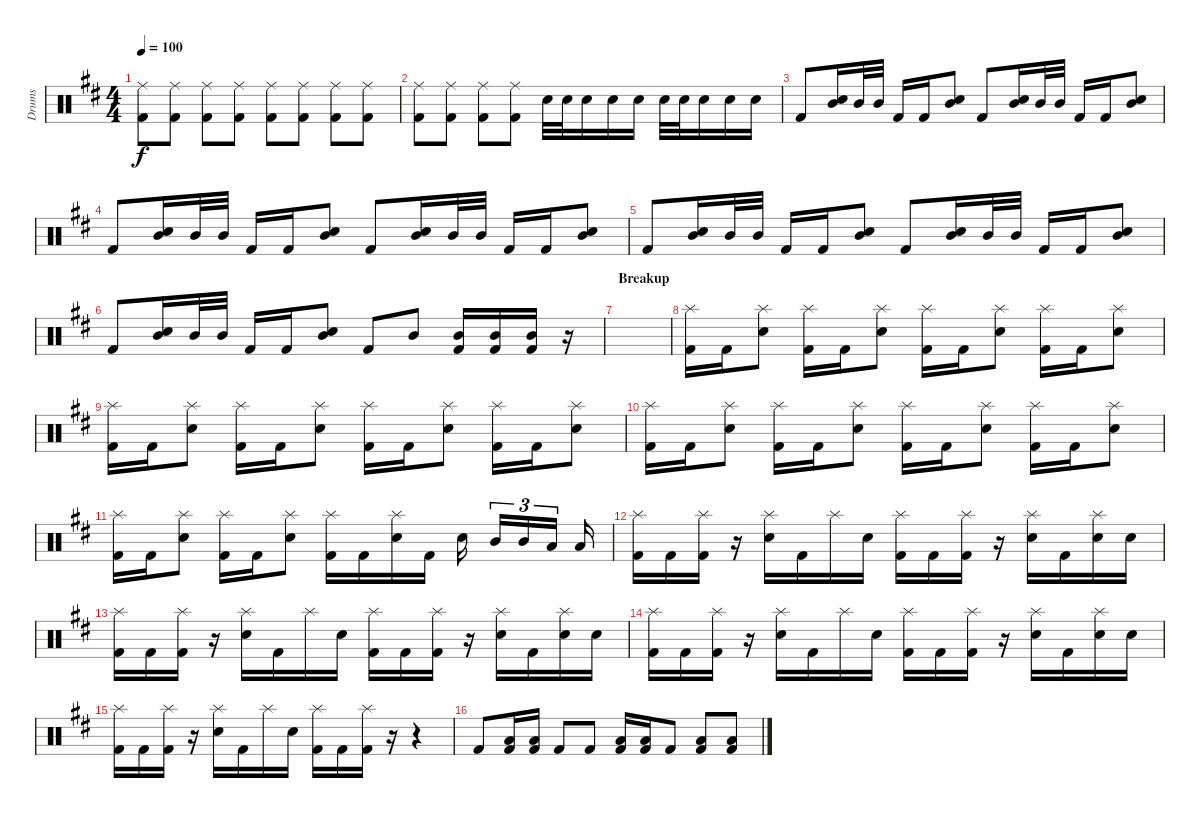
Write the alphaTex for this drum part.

\track ("Drums" "Drums") {instrument percussion}
\staff {score}
\articulation defaults
\ts (4 4)
\tempo 100
\clef neutral
\ks d
("Kick (hit) 2" "Ride (middle)").8{dy f} ("Kick (hit) 2" "Ride (middle)").8 ("Kick (hit) 2" "Ride (middle)").8 ("Kick (hit) 2" "Ride (middle)").8 ("Kick (hit) 2" "Ride (middle)").8 ("Kick (hit) 2" "Ride (middle)").8 ("Kick (hit) 2" "Ride (middle)").8 ("Kick (hit) 2" "Ride (middle)").8 |
("Kick (hit) 2" "Ride (middle)").8 ("Kick (hit) 2" "Ride (middle)").8 ("Kick (hit) 2" "Ride (middle)").8 ("Kick (hit) 2" "Ride (middle)").8 "Electric Snare (hit)".32 "Electric Snare (hit)".32 "Electric Snare (hit)".16 "Electric Snare (hit)".16 "Electric Snare (hit)".16 "Electric Snare (hit)".32 "Electric Snare (hit)".32 "Electric Snare (hit)".16 "Electric Snare (hit)".16 "Electric Snare (hit)".16 |
"Kick (hit) 2".8 ("Mid Tom (hit)" "Electric Snare (hit)").16 "Mid Tom (hit)".32 "Mid Tom (hit)".32 "Kick (hit) 2".16 "Kick (hit) 2".16 ("Mid Tom (hit)" "Electric Snare (hit)").8 "Kick (hit) 2".8 ("Mid Tom (hit)" "Electric Snare (hit)").16 "Mid Tom (hit)".32 "Mid Tom (hit)".32 "Kick (hit) 2".16 "Kick (hit) 2".16 ("Mid Tom (hit)" "Electric Snare (hit)").8 |
"Kick (hit) 2".8 ("Mid Tom (hit)" "Electric Snare (hit)").16 "Mid Tom (hit)".32 "Mid Tom (hit)".32 "Kick (hit) 2".16 "Kick (hit) 2".16 ("Mid Tom (hit)" "Electric Snare (hit)").8 "Kick (hit) 2".8 ("Mid Tom (hit)" "Electric Snare (hit)").16 "Mid Tom (hit)".32 "Mid Tom (hit)".32 "Kick (hit) 2".16 "Kick (hit) 2".16 ("Mid Tom (hit)" "Electric Snare (hit)").8 |
"Kick (hit) 2".8 ("Mid Tom (hit)" "Electric Snare (hit)").16 "Mid Tom (hit)".32 "Mid Tom (hit)".32 "Kick (hit) 2".16 "Kick (hit) 2".16 ("Mid Tom (hit)" "Electric Snare (hit)").8 "Kick (hit) 2".8 ("Mid Tom (hit)" "Electric Snare (hit)").16 "Mid Tom (hit)".32 "Mid Tom (hit)".32 "Kick (hit) 2".16 "Kick (hit) 2".16 ("Mid Tom (hit)" "Electric Snare (hit)").8 |
"Kick (hit) 2".8 ("Mid Tom (hit)" "Electric Snare (hit)").16 "Mid Tom (hit)".32 "Mid Tom (hit)".32 "Kick (hit) 2".16 "Kick (hit) 2".16 ("Mid Tom (hit)" "Electric Snare (hit)").8 "Kick (hit) 2".8 "Mid Tom (hit)".8 ("Mid Tom (hit)" "Kick (hit) 2").16 ("Mid Tom (hit)" "Kick (hit) 2").16 ("Mid Tom (hit)" "Kick (hit) 2").16 r.16 |
\section ("" "Breakup")
|
("Kick (hit) 2" "Splash (hit)").16 "Kick (hit) 2".16 ("Electric Snare (hit)" "Splash (hit)").8 ("Kick (hit) 2" "Splash (hit)").16 "Kick (hit) 2".16 ("Electric Snare (hit)" "Splash (hit)").8 ("Kick (hit) 2" "Splash (hit)").16 "Kick (hit) 2".16 ("Electric Snare (hit)" "Splash (hit)").8 ("Kick (hit) 2" "Splash (hit)").16 "Kick (hit) 2".16 ("Electric Snare (hit)" "Splash (hit)").8 |
("Kick (hit) 2" "Splash (hit)").16 "Kick (hit) 2".16 ("Electric Snare (hit)" "Splash (hit)").8 ("Kick (hit) 2" "Splash (hit)").16 "Kick (hit) 2".16 ("Electric Snare (hit)" "Splash (hit)").8 ("Kick (hit) 2" "Splash (hit)").16 "Kick (hit) 2".16 ("Electric Snare (hit)" "Splash (hit)").8 ("Kick (hit) 2" "Splash (hit)").16 "Kick (hit) 2".16 ("Electric Snare (hit)" "Splash (hit)").8 |
("Kick (hit) 2" "Splash (hit)").16 "Kick (hit) 2".16 ("Electric Snare (hit)" "Splash (hit)").8 ("Kick (hit) 2" "Splash (hit)").16 "Kick (hit) 2".16 ("Electric Snare (hit)" "Splash (hit)").8 ("Kick (hit) 2" "Splash (hit)").16 "Kick (hit) 2".16 ("Electric Snare (hit)" "Splash (hit)").8 ("Kick (hit) 2" "Splash (hit)").16 "Kick (hit) 2".16 ("Electric Snare (hit)" "Splash (hit)").8 |
("Kick (hit) 2" "Splash (hit)").16 "Kick (hit) 2".16 ("Electric Snare (hit)" "Splash (hit)").8 ("Kick (hit) 2" "Splash (hit)").16 "Kick (hit) 2".16 ("Electric Snare (hit)" "Splash (hit)").8 ("Kick (hit) 2" "Splash (hit)").16 "Kick (hit) 2".16 ("Electric Snare (hit)" "Splash (hit)").16 "Kick (hit) 2".16 "Electric Snare (hit)".16 "Mid Tom (hit)".16{tu (3 2)} "Mid Tom (hit)".16{tu (3 2)} "Low Tom (hit)".16{tu (3 2)} "Low Tom (hit)".16 |
("Kick (hit) 2" "Splash (hit)").16 "Kick (hit) 2".16 ("Kick (hit) 2" "Splash (hit)").16 r.16 ("Electric Snare (hit)" "Splash (hit)").16 "Kick (hit) 2".16 "Splash (hit)".16 "Electric Snare (hit)".16 ("Kick (hit) 2" "Splash (hit)").16 "Kick (hit) 2".16 ("Kick (hit) 2" "Splash (hit)").16 r.16 ("Electric Snare (hit)" "Splash (hit)").16 "Kick (hit) 2".16 ("Electric Snare (hit)" "Splash (hit)").16 "Electric Snare (hit)".16 |
("Kick (hit) 2" "Splash (hit)").16 "Kick (hit) 2".16 ("Kick (hit) 2" "Splash (hit)").16 r.16 ("Electric Snare (hit)" "Splash (hit)").16 "Kick (hit) 2".16 "Splash (hit)".16 "Electric Snare (hit)".16 ("Kick (hit) 2" "Splash (hit)").16 "Kick (hit) 2".16 ("Kick (hit) 2" "Splash (hit)").16 r.16 ("Electric Snare (hit)" "Splash (hit)").16 "Kick (hit) 2".16 ("Electric Snare (hit)" "Splash (hit)").16 "Electric Snare (hit)".16 |
("Kick (hit) 2" "Splash (hit)").16 "Kick (hit) 2".16 ("Kick (hit) 2" "Splash (hit)").16 r.16 ("Electric Snare (hit)" "Splash (hit)").16 "Kick (hit) 2".16 "Splash (hit)".16 "Electric Snare (hit)".16 ("Kick (hit) 2" "Splash (hit)").16 "Kick (hit) 2".16 ("Kick (hit) 2" "Splash (hit)").16 r.16 ("Electric Snare (hit)" "Splash (hit)").16 "Kick (hit) 2".16 ("Electric Snare (hit)" "Splash (hit)").16 "Electric Snare (hit)".16 |
("Kick (hit) 2" "Splash (hit)").16 "Kick (hit) 2".16 ("Kick (hit) 2" "Splash (hit)").16 r.16 ("Electric Snare (hit)" "Splash (hit)").16 "Kick (hit) 2".16 "Splash (hit)".16 "Electric Snare (hit)".16 ("Kick (hit) 2" "Splash (hit)").16 "Kick (hit) 2".16 ("Kick (hit) 2" "Splash (hit)").16 r.16 r.4 |
"Kick (hit) 2".8 ("Kick (hit) 2" "Low Tom (hit)").16 ("Kick (hit) 2" "Low Tom (hit)").16 "Kick (hit) 2".8 "Kick (hit) 2".8 ("Kick (hit) 2" "Low Tom (hit)").16 ("Kick (hit) 2" "Low Tom (hit)").16 "Kick (hit) 2".8 ("Kick (hit) 2" "Low Tom (hit)").8 ("Kick (hit) 2" "Low Tom (hit)").8
